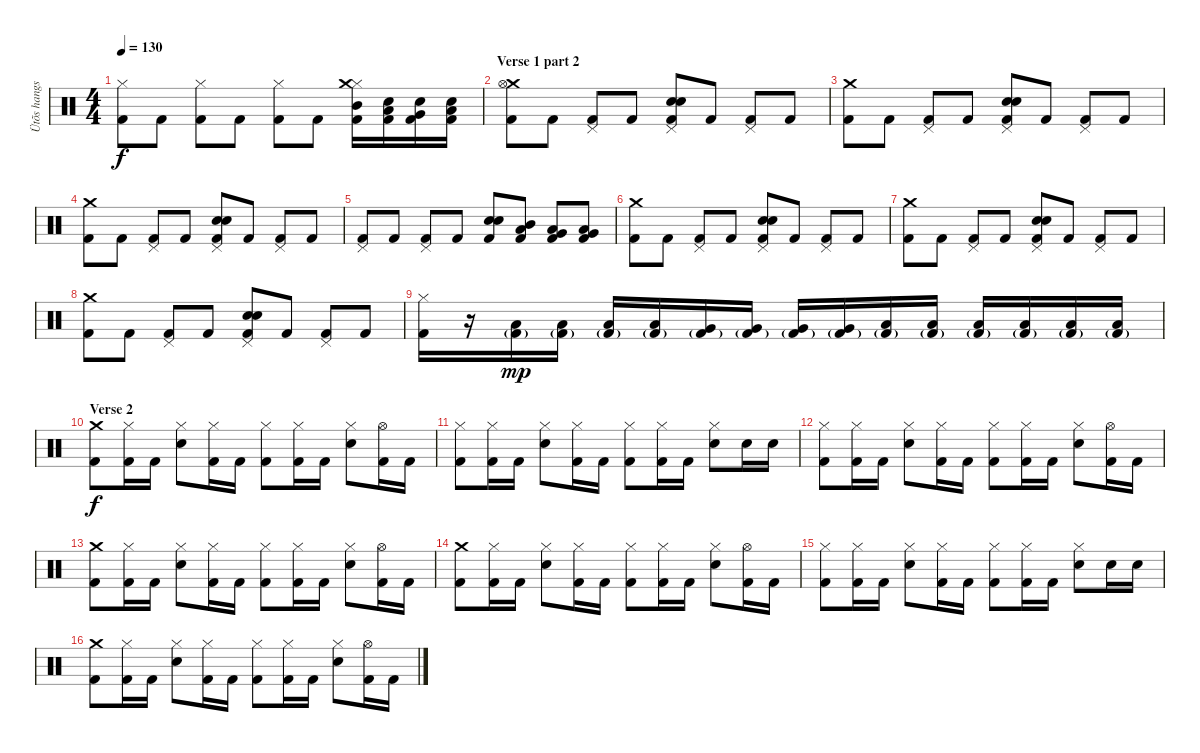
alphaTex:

\track ("Ütõs hangszer" "Ütõs hangs") {instrument percussion}
\staff {score}
\articulation defaults
\ts (4 4)
\tempo 130
\clef neutral
\ks c
("Hi-Hat (closed)" "Kick (hit) 2").8{dy f} "Kick (hit) 2".8 ("Hi-Hat (closed)" "Kick (hit) 2").8 "Kick (hit) 2".8 ("Hi-Hat (closed)" "Kick (hit) 2").8 "Kick (hit) 2".8 ("Mid Tom (hit)" "Hi-Hat (closed)" "Crash medium (hit)" "Kick (hit) 2").16 ("Low Tom (hit)" "Snare (hit) 2" "Kick (hit) 2").16 ("Very Low Tom (hit)" "Snare (hit) 2" "Kick (hit) 2").16 ("Low Floor Tom (hit)" "Snare (hit) 2" "Kick (hit) 2").16 |
\section ("" "Verse 1 part 2")
("Crash medium (hit)" "Hi-Hat (open)" "Kick (hit) 2").8 "Kick (hit) 2".8 ("Pedal Hi-Hat (hit)" "Kick (hit) 2").8 "Kick (hit) 2".8 ("Pedal Hi-Hat (hit)" "Snare (hit) 2" "Electric Snare (hit)" "Kick (hit) 2").8 "Kick (hit) 2".8 ("Pedal Hi-Hat (hit)" "Kick (hit) 2").8 "Kick (hit) 2".8 |
("Crash medium (hit)" "Kick (hit) 2").8 "Kick (hit) 2".8 ("Pedal Hi-Hat (hit)" "Kick (hit) 2").8 "Kick (hit) 2".8 ("Pedal Hi-Hat (hit)" "Snare (hit) 2" "Electric Snare (hit)" "Kick (hit) 2").8 "Kick (hit) 2".8 ("Pedal Hi-Hat (hit)" "Kick (hit) 2").8 "Kick (hit) 2".8 |
("Crash medium (hit)" "Kick (hit) 2").8 "Kick (hit) 2".8 ("Pedal Hi-Hat (hit)" "Kick (hit) 2").8 "Kick (hit) 2".8 ("Pedal Hi-Hat (hit)" "Snare (hit) 2" "Electric Snare (hit)" "Kick (hit) 2").8 "Kick (hit) 2".8 ("Pedal Hi-Hat (hit)" "Kick (hit) 2").8 "Kick (hit) 2".8 |
("Pedal Hi-Hat (hit)" "Kick (hit) 2").8 "Kick (hit) 2".8 ("Pedal Hi-Hat (hit)" "Kick (hit) 2").8 "Kick (hit) 2".8 ("Electric Snare (hit)" "Snare (hit) 2" "Kick (hit) 2").8 ("Mid Tom (hit)" "Low Tom (hit)" "Kick (hit) 2").8 ("Very Low Tom (hit)" "Low Tom (hit)" "Kick (hit) 2").8 ("Low Floor Tom (hit)" "Very Low Tom (hit)" "Kick (hit) 2").8 |
("Crash medium (hit)" "Kick (hit) 2").8 "Kick (hit) 2".8 ("Pedal Hi-Hat (hit)" "Kick (hit) 2").8 "Kick (hit) 2".8 ("Pedal Hi-Hat (hit)" "Snare (hit) 2" "Electric Snare (hit)" "Kick (hit) 2").8 "Kick (hit) 2".8 ("Pedal Hi-Hat (hit)" "Kick (hit) 2").8 "Kick (hit) 2".8 |
("Crash medium (hit)" "Kick (hit) 2").8 "Kick (hit) 2".8 ("Pedal Hi-Hat (hit)" "Kick (hit) 2").8 "Kick (hit) 2".8 ("Pedal Hi-Hat (hit)" "Snare (hit) 2" "Electric Snare (hit)" "Kick (hit) 2").8 "Kick (hit) 2".8 ("Pedal Hi-Hat (hit)" "Kick (hit) 2").8 "Kick (hit) 2".8 |
("Crash medium (hit)" "Kick (hit) 2").8 "Kick (hit) 2".8 ("Pedal Hi-Hat (hit)" "Kick (hit) 2").8 "Kick (hit) 2".8 ("Pedal Hi-Hat (hit)" "Snare (hit) 2" "Electric Snare (hit)" "Kick (hit) 2").8 "Kick (hit) 2".8 ("Pedal Hi-Hat (hit)" "Kick (hit) 2").8 "Kick (hit) 2".8 |
("Hi-Hat (closed)" "Kick (hit) 2").16 r.16 ("Kick (hit) 2"{g} "Low Tom (hit)").16{dy mp} ("Kick (hit) 2"{g} "Low Tom (hit)").16 ("Kick (hit) 2"{g} "Low Tom (hit)").16 ("Kick (hit) 2"{g} "Low Tom (hit)").16 ("Kick (hit) 2"{g} "Very Low Tom (hit)").16 ("Kick (hit) 2"{g} "Very Low Tom (hit)").16 ("Kick (hit) 2"{g} "Very Low Tom (hit)").16 ("Kick (hit) 2"{g} "Very Low Tom (hit)").16 ("Kick (hit) 2"{g} "Low Floor Tom (hit)").16 ("Kick (hit) 2"{g} "Low Floor Tom (hit)").16 ("Kick (hit) 2"{g} "Low Floor Tom (hit)").16 ("Kick (hit) 2"{g} "Low Floor Tom (hit)").16 ("Kick (hit) 2"{g} "Low Floor Tom (hit)").16 ("Kick (hit) 2"{g} "Low Floor Tom (hit)").16 |
\section ("" "Verse 2")
("Crash medium (hit)" "Kick (hit) 2").8{dy f} ("Hi-Hat (closed)" "Kick (hit) 2").16 "Kick (hit) 2".16 ("Hi-Hat (closed)" "Snare (hit) 2").8 ("Hi-Hat (closed)" "Kick (hit) 2").16 "Kick (hit) 2".16 ("Hi-Hat (closed)" "Kick (hit) 2").8 ("Hi-Hat (closed)" "Kick (hit) 2").16 "Kick (hit) 2".16 ("Hi-Hat (closed)" "Snare (hit) 2").8 ("Hi-Hat (open)" "Kick (hit) 2").16 "Kick (hit) 2".16 |
("Hi-Hat (closed)" "Kick (hit) 2").8 ("Hi-Hat (closed)" "Kick (hit) 2").16 "Kick (hit) 2".16 ("Hi-Hat (closed)" "Snare (hit) 2").8 ("Hi-Hat (closed)" "Kick (hit) 2").16 "Kick (hit) 2".16 ("Hi-Hat (closed)" "Kick (hit) 2").8 ("Hi-Hat (closed)" "Kick (hit) 2").16 "Kick (hit) 2".16 ("Hi-Hat (closed)" "Snare (hit) 2").8 "Snare (hit) 2".16 "Snare (hit) 2".16 |
("Hi-Hat (closed)" "Kick (hit) 2").8 ("Hi-Hat (closed)" "Kick (hit) 2").16 "Kick (hit) 2".16 ("Hi-Hat (closed)" "Snare (hit) 2").8 ("Hi-Hat (closed)" "Kick (hit) 2").16 "Kick (hit) 2".16 ("Hi-Hat (closed)" "Kick (hit) 2").8 ("Hi-Hat (closed)" "Kick (hit) 2").16 "Kick (hit) 2".16 ("Hi-Hat (closed)" "Snare (hit) 2").8 ("Hi-Hat (open)" "Kick (hit) 2").16 "Kick (hit) 2".16 |
("Crash medium (hit)" "Kick (hit) 2").8 ("Hi-Hat (closed)" "Kick (hit) 2").16 "Kick (hit) 2".16 ("Hi-Hat (closed)" "Snare (hit) 2").8 ("Hi-Hat (closed)" "Kick (hit) 2").16 "Kick (hit) 2".16 ("Hi-Hat (closed)" "Kick (hit) 2").8 ("Hi-Hat (closed)" "Kick (hit) 2").16 "Kick (hit) 2".16 ("Hi-Hat (closed)" "Snare (hit) 2").8 ("Hi-Hat (open)" "Kick (hit) 2").16 "Kick (hit) 2".16 |
("Crash medium (hit)" "Kick (hit) 2").8 ("Hi-Hat (closed)" "Kick (hit) 2").16 "Kick (hit) 2".16 ("Hi-Hat (closed)" "Snare (hit) 2").8 ("Hi-Hat (closed)" "Kick (hit) 2").16 "Kick (hit) 2".16 ("Hi-Hat (closed)" "Kick (hit) 2").8 ("Hi-Hat (closed)" "Kick (hit) 2").16 "Kick (hit) 2".16 ("Hi-Hat (closed)" "Snare (hit) 2").8 ("Hi-Hat (open)" "Kick (hit) 2").16 "Kick (hit) 2".16 |
("Hi-Hat (closed)" "Kick (hit) 2").8 ("Hi-Hat (closed)" "Kick (hit) 2").16 "Kick (hit) 2".16 ("Hi-Hat (closed)" "Snare (hit) 2").8 ("Hi-Hat (closed)" "Kick (hit) 2").16 "Kick (hit) 2".16 ("Hi-Hat (closed)" "Kick (hit) 2").8 ("Hi-Hat (closed)" "Kick (hit) 2").16 "Kick (hit) 2".16 ("Hi-Hat (closed)" "Snare (hit) 2").8 "Snare (hit) 2".16 "Snare (hit) 2".16 |
("Crash medium (hit)" "Kick (hit) 2").8 ("Hi-Hat (closed)" "Kick (hit) 2").16 "Kick (hit) 2".16 ("Hi-Hat (closed)" "Snare (hit) 2").8 ("Hi-Hat (closed)" "Kick (hit) 2").16 "Kick (hit) 2".16 ("Hi-Hat (closed)" "Kick (hit) 2").8 ("Hi-Hat (closed)" "Kick (hit) 2").16 "Kick (hit) 2".16 ("Hi-Hat (closed)" "Snare (hit) 2").8 ("Hi-Hat (open)" "Kick (hit) 2").16 "Kick (hit) 2".16
